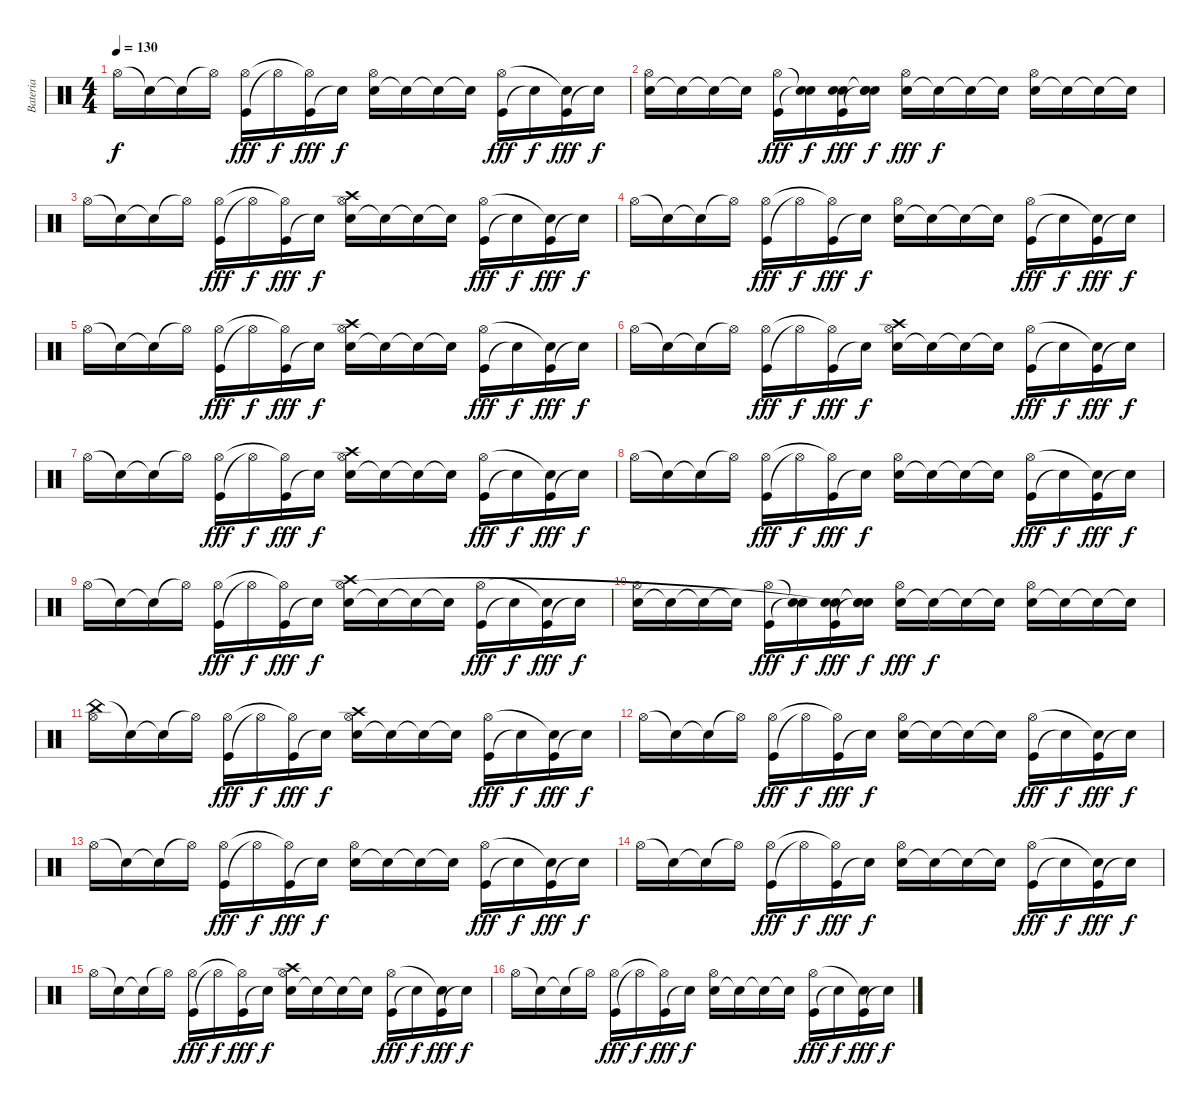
\track ("Bateria" "Bateria") {instrument percussion}
\staff {score}
\articulation defaults
\ts (4 4)
\tempo 130
\clef neutral
\ks c "Hi-Hat (open)".16{dy f} "Snare (hit)"{t}.16 "Snare (hit)"{t}.16 "Hi-Hat (open)"{t}.16
("Kick (hit)" "Hi-Hat (open)").16{dy fff} "Hi-Hat (open)"{t}.16{dy f} ("Kick (hit)" "Hi-Hat (open)"{t}).16{dy fff} "Snare (hit)"{t}.16{dy f} ("Electric Snare (hit)" "Hi-Hat (open)").16 "Snare (hit)"{t}.16 "Snare (hit)"{t}.16 "Snare (hit)"{t}.16 ("Kick (hit)" "Hi-Hat (open)").16{dy fff} "Snare (hit)"{t}.16{dy f} ("Kick (hit)" "Snare (hit)"{t}).16{dy fff} "Snare (hit)"{t}.16{dy f} |
("Electric Snare (hit)" "Hi-Hat (open)").16 "Snare (hit)"{t}.16 "Snare (hit)"{t}.16 "Snare (hit)"{t}.16 ("Kick (hit)" "Hi-Hat (open)").16{dy fff} ("Snare (hit)"{t} "Snare (hit)"{t}).16{dy f} ("Kick (hit)" "Electric Snare (hit)" "Snare (hit)"{t}).16{dy fff} ("Snare (hit)"{t} "Electric Snare (hit)" "Snare (hit)"{t}).16{dy f} ("Electric Snare (hit)" "Hi-Hat (open)").16{dy fff} "Snare (hit)"{t}.16{dy f} "Snare (hit)"{t}.16 "Snare (hit)"{t}.16 ("Electric Snare (hit)" "Hi-Hat (open)").16 "Snare (hit)"{t}.16 "Snare (hit)"{t}.16 "Snare (hit)"{t}.16 |
"Hi-Hat (open)".16 "Snare (hit)"{t}.16 "Snare (hit)"{t}.16 "Hi-Hat (open)"{t}.16 ("Kick (hit)" "Hi-Hat (open)").16{dy fff} "Hi-Hat (open)"{t}.16{dy f} ("Kick (hit)" "Hi-Hat (open)"{t}).16{dy fff} "Snare (hit)"{t}.16{dy f} ("Electric Snare (hit)" "Crash high (hit)" "Hi-Hat (open)").16 "Snare (hit)"{t}.16 "Snare (hit)"{t}.16 "Snare (hit)"{t}.16 ("Kick (hit)" "Hi-Hat (open)").16{dy fff} "Snare (hit)"{t}.16{dy f} ("Kick (hit)" "Snare (hit)"{t}).16{dy fff} "Snare (hit)"{t}.16{dy f} |
"Hi-Hat (open)".16 "Snare (hit)"{t}.16 "Snare (hit)"{t}.16 "Hi-Hat (open)"{t}.16 ("Kick (hit)" "Hi-Hat (open)").16{dy fff} "Hi-Hat (open)"{t}.16{dy f} ("Kick (hit)" "Hi-Hat (open)"{t}).16{dy fff} "Snare (hit)"{t}.16{dy f} ("Electric Snare (hit)" "Hi-Hat (open)").16 "Snare (hit)"{t}.16 "Snare (hit)"{t}.16 "Snare (hit)"{t}.16 ("Kick (hit)" "Hi-Hat (open)").16{dy fff} "Snare (hit)"{t}.16{dy f} ("Kick (hit)" "Snare (hit)"{t}).16{dy fff} "Snare (hit)"{t}.16{dy f} |
"Hi-Hat (open)".16 "Snare (hit)"{t}.16 "Snare (hit)"{t}.16 "Hi-Hat (open)"{t}.16 ("Kick (hit)" "Hi-Hat (open)").16{dy fff} "Hi-Hat (open)"{t}.16{dy f} ("Kick (hit)" "Hi-Hat (open)"{t}).16{dy fff} "Snare (hit)"{t}.16{dy f} ("Electric Snare (hit)" "Crash high (hit)" "Hi-Hat (open)").16 "Snare (hit)"{t}.16 "Snare (hit)"{t}.16 "Snare (hit)"{t}.16 ("Kick (hit)" "Hi-Hat (open)").16{dy fff} "Snare (hit)"{t}.16{dy f} ("Kick (hit)" "Snare (hit)"{t}).16{dy fff} "Snare (hit)"{t}.16{dy f} |
"Hi-Hat (open)".16 "Snare (hit)"{t}.16 "Snare (hit)"{t}.16 "Hi-Hat (open)"{t}.16 ("Kick (hit)" "Hi-Hat (open)").16{dy fff} "Hi-Hat (open)"{t}.16{dy f} ("Kick (hit)" "Hi-Hat (open)"{t}).16{dy fff} "Snare (hit)"{t}.16{dy f} ("Electric Snare (hit)" "Crash high (hit)" "Hi-Hat (open)").16 "Snare (hit)"{t}.16 "Snare (hit)"{t}.16 "Snare (hit)"{t}.16 ("Kick (hit)" "Hi-Hat (open)").16{dy fff} "Snare (hit)"{t}.16{dy f} ("Kick (hit)" "Snare (hit)"{t}).16{dy fff} "Snare (hit)"{t}.16{dy f} |
"Hi-Hat (open)".16 "Snare (hit)"{t}.16 "Snare (hit)"{t}.16 "Hi-Hat (open)"{t}.16 ("Kick (hit)" "Hi-Hat (open)").16{dy fff} "Hi-Hat (open)"{t}.16{dy f} ("Kick (hit)" "Hi-Hat (open)"{t}).16{dy fff} "Snare (hit)"{t}.16{dy f} ("Electric Snare (hit)" "Crash high (hit)" "Hi-Hat (open)").16 "Snare (hit)"{t}.16 "Snare (hit)"{t}.16 "Snare (hit)"{t}.16 ("Kick (hit)" "Hi-Hat (open)").16{dy fff} "Snare (hit)"{t}.16{dy f} ("Kick (hit)" "Snare (hit)"{t}).16{dy fff} "Snare (hit)"{t}.16{dy f} |
"Hi-Hat (open)".16 "Snare (hit)"{t}.16 "Snare (hit)"{t}.16 "Hi-Hat (open)"{t}.16 ("Kick (hit)" "Hi-Hat (open)").16{dy fff} "Hi-Hat (open)"{t}.16{dy f} ("Kick (hit)" "Hi-Hat (open)"{t}).16{dy fff} "Snare (hit)"{t}.16{dy f} ("Electric Snare (hit)" "Hi-Hat (open)").16 "Snare (hit)"{t}.16 "Snare (hit)"{t}.16 "Snare (hit)"{t}.16 ("Kick (hit)" "Hi-Hat (open)").16{dy fff} "Snare (hit)"{t}.16{dy f} ("Kick (hit)" "Snare (hit)"{t}).16{dy fff} "Snare (hit)"{t}.16{dy f} |
"Hi-Hat (open)".16 "Snare (hit)"{t}.16 "Snare (hit)"{t}.16 "Hi-Hat (open)"{t}.16 ("Kick (hit)" "Hi-Hat (open)").16{dy fff} "Hi-Hat (open)"{t}.16{dy f} ("Kick (hit)" "Hi-Hat (open)"{t}).16{dy fff} "Snare (hit)"{t}.16{dy f} ("Electric Snare (hit)" "Crash high (hit)" "Hi-Hat (open)").16 "Snare (hit)"{t}.16 "Snare (hit)"{t}.16 "Snare (hit)"{t}.16 ("Kick (hit)" "Hi-Hat (open)").16{dy fff} "Snare (hit)"{t}.16{dy f} ("Kick (hit)" "Snare (hit)"{t}).16{dy fff} "Snare (hit)"{t}.16{dy f} |
("Electric Snare (hit)" "Hi-Hat (open)").16 "Snare (hit)"{t}.16 "Snare (hit)"{t}.16 "Snare (hit)"{t}.16 ("Kick (hit)" "Hi-Hat (open)").16{dy fff} ("Snare (hit)"{t} "Snare (hit)"{t}).16{dy f} ("Kick (hit)" "Electric Snare (hit)" "Snare (hit)"{t}).16{dy fff} ("Snare (hit)"{t} "Electric Snare (hit)" "Snare (hit)"{t}).16{dy f} ("Electric Snare (hit)" "Hi-Hat (open)").16{dy fff} "Snare (hit)"{t}.16{dy f} "Snare (hit)"{t}.16 "Snare (hit)"{t}.16 ("Electric Snare (hit)" "Hi-Hat (open)").16 "Snare (hit)"{t}.16 "Snare (hit)"{t}.16 "Snare (hit)"{t}.16 |
("China (hit)" "Hi-Hat (open)").16 "Snare (hit)"{t}.16 "Snare (hit)"{t}.16 "Hi-Hat (open)"{t}.16 ("Kick (hit)" "Hi-Hat (open)").16{dy fff} "Hi-Hat (open)"{t}.16{dy f} ("Kick (hit)" "Hi-Hat (open)"{t}).16{dy fff} "Snare (hit)"{t}.16{dy f} ("Electric Snare (hit)" "Crash high (hit)" "Hi-Hat (open)").16 "Snare (hit)"{t}.16 "Snare (hit)"{t}.16 "Snare (hit)"{t}.16 ("Kick (hit)" "Hi-Hat (open)").16{dy fff} "Snare (hit)"{t}.16{dy f} ("Kick (hit)" "Snare (hit)"{t}).16{dy fff} "Snare (hit)"{t}.16{dy f} |
"Hi-Hat (open)".16 "Snare (hit)"{t}.16 "Snare (hit)"{t}.16 "Hi-Hat (open)"{t}.16 ("Kick (hit)" "Hi-Hat (open)").16{dy fff} "Hi-Hat (open)"{t}.16{dy f} ("Kick (hit)" "Hi-Hat (open)"{t}).16{dy fff} "Snare (hit)"{t}.16{dy f} ("Electric Snare (hit)" "Hi-Hat (open)").16 "Snare (hit)"{t}.16 "Snare (hit)"{t}.16 "Snare (hit)"{t}.16 ("Kick (hit)" "Hi-Hat (open)").16{dy fff} "Snare (hit)"{t}.16{dy f} ("Kick (hit)" "Snare (hit)"{t}).16{dy fff} "Snare (hit)"{t}.16{dy f} |
"Hi-Hat (open)".16 "Snare (hit)"{t}.16 "Snare (hit)"{t}.16 "Hi-Hat (open)"{t}.16 ("Kick (hit)" "Hi-Hat (open)").16{dy fff} "Hi-Hat (open)"{t}.16{dy f} ("Kick (hit)" "Hi-Hat (open)"{t}).16{dy fff} "Snare (hit)"{t}.16{dy f} ("Electric Snare (hit)" "Hi-Hat (open)").16 "Snare (hit)"{t}.16 "Snare (hit)"{t}.16 "Snare (hit)"{t}.16 ("Kick (hit)" "Hi-Hat (open)").16{dy fff} "Snare (hit)"{t}.16{dy f} ("Kick (hit)" "Snare (hit)"{t}).16{dy fff} "Snare (hit)"{t}.16{dy f} |
"Hi-Hat (open)".16 "Snare (hit)"{t}.16 "Snare (hit)"{t}.16 "Hi-Hat (open)"{t}.16 ("Kick (hit)" "Hi-Hat (open)").16{dy fff} "Hi-Hat (open)"{t}.16{dy f} ("Kick (hit)" "Hi-Hat (open)"{t}).16{dy fff} "Snare (hit)"{t}.16{dy f} ("Electric Snare (hit)" "Hi-Hat (open)").16 "Snare (hit)"{t}.16 "Snare (hit)"{t}.16 "Snare (hit)"{t}.16 ("Kick (hit)" "Hi-Hat (open)").16{dy fff} "Snare (hit)"{t}.16{dy f} ("Kick (hit)" "Snare (hit)"{t}).16{dy fff} "Snare (hit)"{t}.16{dy f} |
"Hi-Hat (open)".16 "Snare (hit)"{t}.16 "Snare (hit)"{t}.16 "Hi-Hat (open)"{t}.16 ("Kick (hit)" "Hi-Hat (open)").16{dy fff} "Hi-Hat (open)"{t}.16{dy f} ("Kick (hit)" "Hi-Hat (open)"{t}).16{dy fff} "Snare (hit)"{t}.16{dy f} ("Electric Snare (hit)" "Crash high (hit)" "Hi-Hat (open)").16 "Snare (hit)"{t}.16 "Snare (hit)"{t}.16 "Snare (hit)"{t}.16 ("Kick (hit)" "Hi-Hat (open)").16{dy fff} "Snare (hit)"{t}.16{dy f} ("Kick (hit)" "Snare (hit)"{t}).16{dy fff} "Snare (hit)"{t}.16{dy f} |
"Hi-Hat (open)".16 "Snare (hit)"{t}.16 "Snare (hit)"{t}.16 "Hi-Hat (open)"{t}.16 ("Kick (hit)" "Hi-Hat (open)").16{dy fff} "Hi-Hat (open)"{t}.16{dy f} ("Kick (hit)" "Hi-Hat (open)"{t}).16{dy fff} "Snare (hit)"{t}.16{dy f} ("Electric Snare (hit)" "Hi-Hat (open)").16 "Snare (hit)"{t}.16 "Snare (hit)"{t}.16 "Snare (hit)"{t}.16 ("Kick (hit)" "Hi-Hat (open)").16{dy fff} "Snare (hit)"{t}.16{dy f} ("Kick (hit)" "Snare (hit)"{t}).16{dy fff} "Snare (hit)"{t}.16{dy f}
